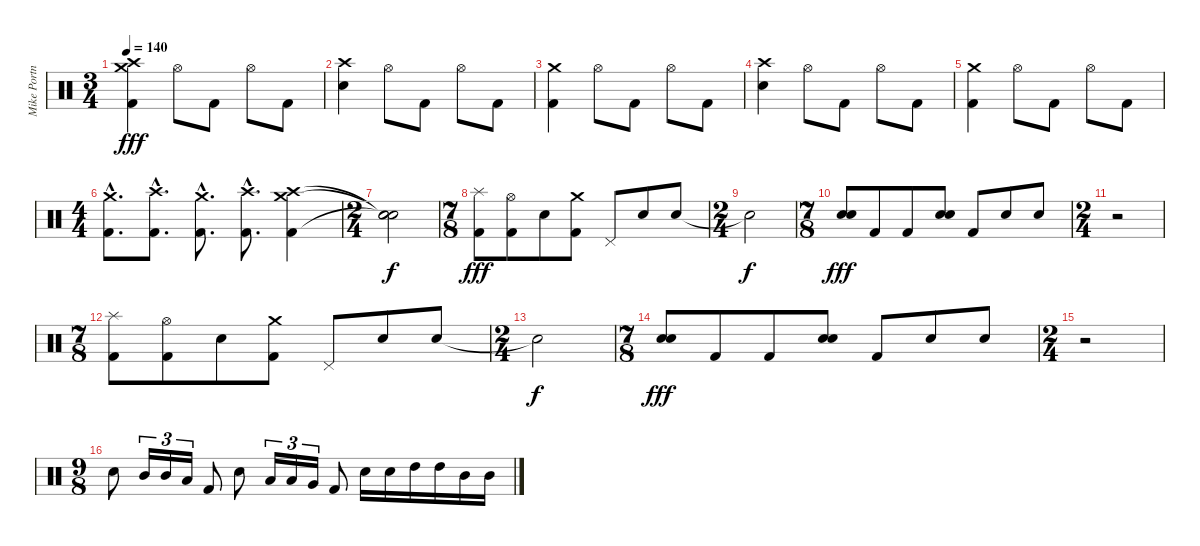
\track ("Mike Portnoy" "Mike Portn") {instrument percussion}
\staff {score}
\articulation defaults
\ts (3 4)
\tempo 140
\clef neutral
\ks c
("Crash medium (hit)" "Crash high (hit)" "Kick (hit) 2").4{dy fff} "Hi-Hat (open)".8 "Kick (hit) 2".8 "Hi-Hat (open)".8 "Kick (hit) 2".8 |
("Crash high (hit)" "Snare (hit) 2").4 "Hi-Hat (open)".8 "Kick (hit) 2".8 "Hi-Hat (open)".8 "Kick (hit) 2".8 |
("Crash medium (hit)" "Kick (hit) 2").4 "Hi-Hat (open)".8 "Kick (hit) 2".8 "Hi-Hat (open)".8 "Kick (hit) 2".8 |
("Crash high (hit)" "Snare (hit) 2").4 "Hi-Hat (open)".8 "Kick (hit) 2".8 "Hi-Hat (open)".8 "Kick (hit) 2".8 |
("Crash medium (hit)" "Kick (hit) 2").4 "Hi-Hat (open)".8 "Kick (hit) 2".8 "Hi-Hat (open)".8 "Kick (hit) 2".8 |
\ts (4 4)
("Crash medium (hit)"{hac} "Kick (hit) 2"{hac}).8{d} ("Crash high (hit)"{hac} "Kick (hit) 2"{hac}).8{d} ("Crash medium (hit)"{hac} "Kick (hit) 2"{hac}).8{d} ("Crash high (hit)"{hac} "Kick (hit) 2"{hac}).8{d} ("Crash high (hit)" "Crash medium (hit)" "Kick (hit) 2").4 |
\ts (2 4)
("Snare (hit)"{t} "Snare (hit)"{t} "Snare (hit)"{t}).2{dy f} |
\ts (7 8)
("Splash (hit)" "Kick (hit) 2").8{dy fff} ("Hi-Hat (open)" "Kick (hit) 2").8 "Snare (hit) 2".8 ("Crash medium (hit)" "Kick (hit) 2").8 "Pedal Hi-Hat (hit)".8 "Snare (hit) 2".8 "Snare (hit) 2".8 |
\ts (2 4)
"Snare (hit)"{t}.2{dy f} |
\ts (7 8)
("Snare (hit) 2" "Snare (hit) 2").8{dy fff} "Kick (hit) 2".8 "Kick (hit) 2".8 ("Snare (hit) 2" "Snare (hit) 2").8 "Kick (hit) 2".8 "Snare (hit) 2".8 "Snare (hit) 2".8 |
\ts (2 4)
r.2 |
\ts (7 8)
("Splash (hit)" "Kick (hit) 2").8 ("Hi-Hat (open)" "Kick (hit) 2").8 "Snare (hit) 2".8 ("Crash medium (hit)" "Kick (hit) 2").8 "Pedal Hi-Hat (hit)".8 "Snare (hit) 2".8 "Snare (hit) 2".8 |
\ts (2 4)
"Snare (hit)"{t}.2{dy f} |
\ts (7 8)
("Snare (hit) 2" "Snare (hit) 2").8{dy fff} "Kick (hit) 2".8 "Kick (hit) 2".8 ("Snare (hit) 2" "Snare (hit) 2").8 "Kick (hit) 2".8 "Snare (hit) 2".8 "Snare (hit) 2".8 |
\ts (2 4)
r.2 |
\ts (9 8)
"Snare (hit) 2".8 "Mid Tom (hit)".16{tu (3 2)} "Mid Tom (hit)".16{tu (3 2)} "Low Tom (hit)".16{tu (3 2)} "Kick (hit) 2".8 "Snare (hit) 2".8 "Low Tom (hit)".16{tu (3 2)} "Low Tom (hit)".16{tu (3 2)} "Very Low Tom (hit)".16{tu (3 2)} "Kick (hit) 2".8 "Snare (hit) 2".16 "Snare (hit) 2".16 "High Tom (hit)".16 "High Tom (hit)".16 "Mid Tom (hit)".16 "Mid Tom (hit)".16
